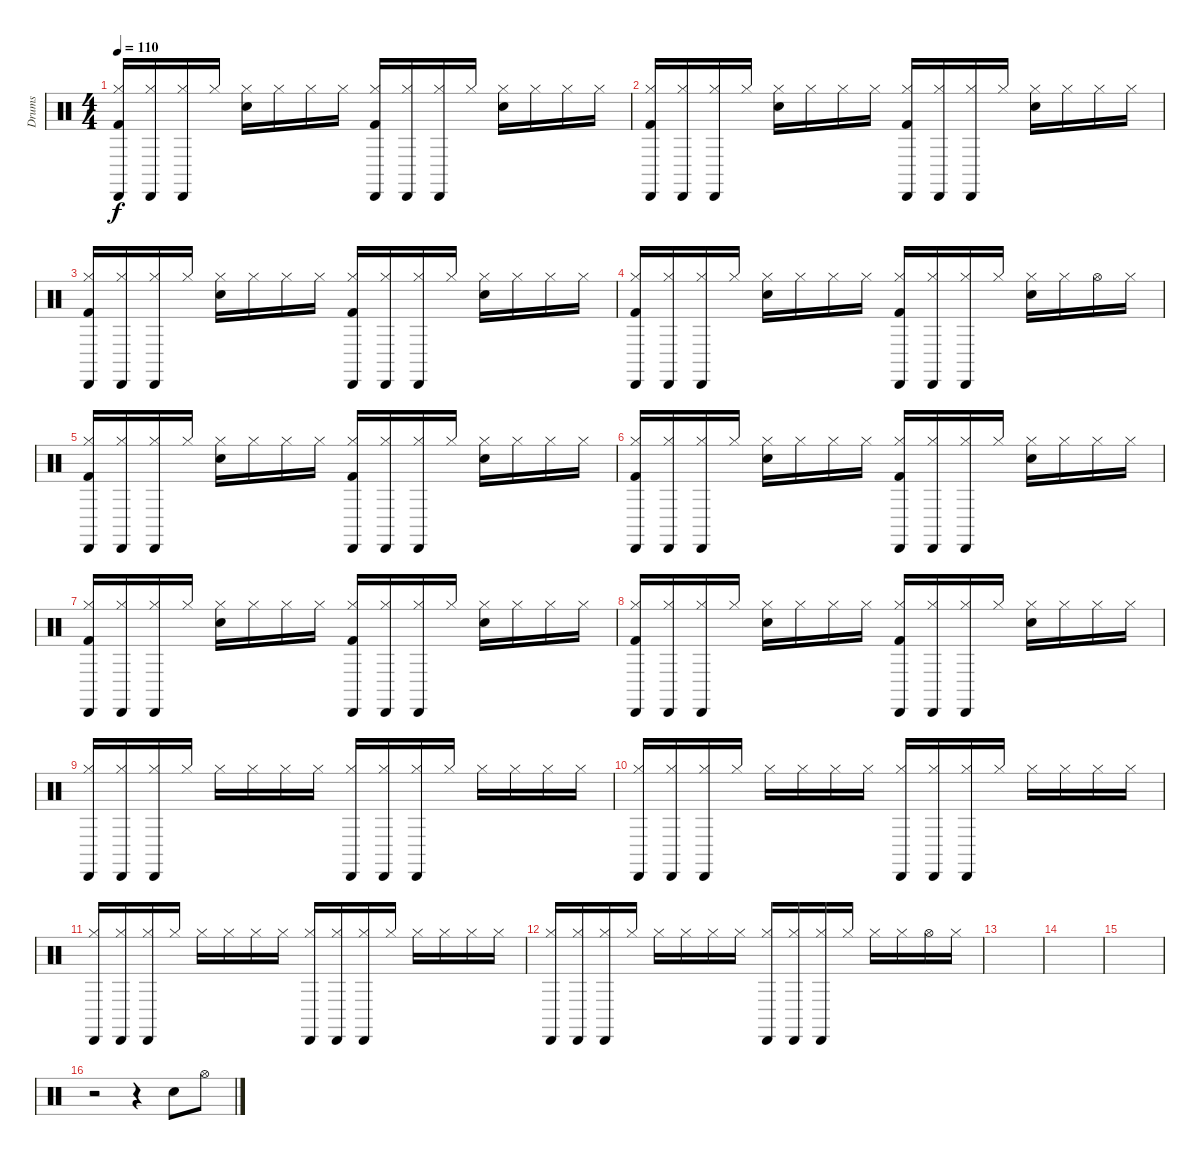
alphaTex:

\track ("Drums" "Drums") {instrument percussion}
\staff {score}
\articulation defaults
\ts (4 4)
\tempo 110
\clef neutral
\ks c
("Cabasa (hit)" "Kick (hit) 2" "Hi-Hat (closed)").16{dy f} ("Cabasa (hit)" "Hi-Hat (closed)").16 ("Cabasa (hit)" "Hi-Hat (closed)").16 "Hi-Hat (closed)".16 ("Electric Snare (hit)" "Hi-Hat (closed)").16 "Hi-Hat (closed)".16 "Hi-Hat (closed)".16 "Hi-Hat (closed)".16 ("Cabasa (hit)" "Kick (hit) 2" "Hi-Hat (closed)").16 ("Cabasa (hit)" "Hi-Hat (closed)").16 ("Cabasa (hit)" "Hi-Hat (closed)").16 "Hi-Hat (closed)".16 ("Electric Snare (hit)" "Hi-Hat (closed)").16 "Hi-Hat (closed)".16 "Hi-Hat (closed)".16 "Hi-Hat (closed)".16 |
("Cabasa (hit)" "Kick (hit) 2" "Hi-Hat (closed)").16 ("Cabasa (hit)" "Hi-Hat (closed)").16 ("Cabasa (hit)" "Hi-Hat (closed)").16 "Hi-Hat (closed)".16 ("Electric Snare (hit)" "Hi-Hat (closed)").16 "Hi-Hat (closed)".16 "Hi-Hat (closed)".16 "Hi-Hat (closed)".16 ("Cabasa (hit)" "Kick (hit) 2" "Hi-Hat (closed)").16 ("Cabasa (hit)" "Hi-Hat (closed)").16 ("Cabasa (hit)" "Hi-Hat (closed)").16 "Hi-Hat (closed)".16 ("Electric Snare (hit)" "Hi-Hat (closed)").16 "Hi-Hat (closed)".16 "Hi-Hat (closed)".16 "Hi-Hat (closed)".16 |
("Cabasa (hit)" "Kick (hit) 2" "Hi-Hat (closed)").16 ("Cabasa (hit)" "Hi-Hat (closed)").16 ("Cabasa (hit)" "Hi-Hat (closed)").16 "Hi-Hat (closed)".16 ("Electric Snare (hit)" "Hi-Hat (closed)").16 "Hi-Hat (closed)".16 "Hi-Hat (closed)".16 "Hi-Hat (closed)".16 ("Cabasa (hit)" "Kick (hit) 2" "Hi-Hat (closed)").16 ("Cabasa (hit)" "Hi-Hat (closed)").16 ("Cabasa (hit)" "Hi-Hat (closed)").16 "Hi-Hat (closed)".16 ("Electric Snare (hit)" "Hi-Hat (closed)").16 "Hi-Hat (closed)".16 "Hi-Hat (closed)".16 "Hi-Hat (closed)".16 |
("Cabasa (hit)" "Kick (hit) 2" "Hi-Hat (closed)").16 ("Cabasa (hit)" "Hi-Hat (closed)").16 ("Cabasa (hit)" "Hi-Hat (closed)").16 "Hi-Hat (closed)".16 ("Electric Snare (hit)" "Hi-Hat (closed)").16 "Hi-Hat (closed)".16 "Hi-Hat (closed)".16 "Hi-Hat (closed)".16 ("Cabasa (hit)" "Kick (hit) 2" "Hi-Hat (closed)").16 ("Cabasa (hit)" "Hi-Hat (closed)").16 ("Cabasa (hit)" "Hi-Hat (closed)").16 "Hi-Hat (closed)".16 ("Electric Snare (hit)" "Hi-Hat (closed)").16 "Hi-Hat (closed)".16 "Hi-Hat (open)".16 "Hi-Hat (closed)".16 |
("Cabasa (hit)" "Kick (hit) 2" "Hi-Hat (closed)").16 ("Cabasa (hit)" "Hi-Hat (closed)").16 ("Cabasa (hit)" "Hi-Hat (closed)").16 "Hi-Hat (closed)".16 ("Electric Snare (hit)" "Hi-Hat (closed)").16 "Hi-Hat (closed)".16 "Hi-Hat (closed)".16 "Hi-Hat (closed)".16 ("Cabasa (hit)" "Kick (hit) 2" "Hi-Hat (closed)").16 ("Cabasa (hit)" "Hi-Hat (closed)").16 ("Cabasa (hit)" "Hi-Hat (closed)").16 "Hi-Hat (closed)".16 ("Electric Snare (hit)" "Hi-Hat (closed)").16 "Hi-Hat (closed)".16 "Hi-Hat (closed)".16 "Hi-Hat (closed)".16 |
("Cabasa (hit)" "Kick (hit) 2" "Hi-Hat (closed)").16 ("Cabasa (hit)" "Hi-Hat (closed)").16 ("Cabasa (hit)" "Hi-Hat (closed)").16 "Hi-Hat (closed)".16 ("Electric Snare (hit)" "Hi-Hat (closed)").16 "Hi-Hat (closed)".16 "Hi-Hat (closed)".16 "Hi-Hat (closed)".16 ("Cabasa (hit)" "Kick (hit) 2" "Hi-Hat (closed)").16 ("Cabasa (hit)" "Hi-Hat (closed)").16 ("Cabasa (hit)" "Hi-Hat (closed)").16 "Hi-Hat (closed)".16 ("Electric Snare (hit)" "Hi-Hat (closed)").16 "Hi-Hat (closed)".16 "Hi-Hat (closed)".16 "Hi-Hat (closed)".16 |
("Cabasa (hit)" "Kick (hit) 2" "Hi-Hat (closed)").16 ("Cabasa (hit)" "Hi-Hat (closed)").16 ("Cabasa (hit)" "Hi-Hat (closed)").16 "Hi-Hat (closed)".16 ("Electric Snare (hit)" "Hi-Hat (closed)").16 "Hi-Hat (closed)".16 "Hi-Hat (closed)".16 "Hi-Hat (closed)".16 ("Cabasa (hit)" "Kick (hit) 2" "Hi-Hat (closed)").16 ("Cabasa (hit)" "Hi-Hat (closed)").16 ("Cabasa (hit)" "Hi-Hat (closed)").16 "Hi-Hat (closed)".16 ("Electric Snare (hit)" "Hi-Hat (closed)").16 "Hi-Hat (closed)".16 "Hi-Hat (closed)".16 "Hi-Hat (closed)".16 |
("Cabasa (hit)" "Kick (hit) 2" "Hi-Hat (closed)").16 ("Cabasa (hit)" "Hi-Hat (closed)").16 ("Cabasa (hit)" "Hi-Hat (closed)").16 "Hi-Hat (closed)".16 ("Electric Snare (hit)" "Hi-Hat (closed)").16 "Hi-Hat (closed)".16 "Hi-Hat (closed)".16 "Hi-Hat (closed)".16 ("Cabasa (hit)" "Kick (hit) 2" "Hi-Hat (closed)").16 ("Cabasa (hit)" "Hi-Hat (closed)").16 ("Cabasa (hit)" "Hi-Hat (closed)").16 "Hi-Hat (closed)".16 ("Electric Snare (hit)" "Hi-Hat (closed)").16 "Hi-Hat (closed)".16 "Hi-Hat (closed)".16 "Hi-Hat (closed)".16 |
("Cabasa (hit)" "Hi-Hat (closed)").16 ("Cabasa (hit)" "Hi-Hat (closed)").16 ("Cabasa (hit)" "Hi-Hat (closed)").16 "Hi-Hat (closed)".16 "Hi-Hat (closed)".16 "Hi-Hat (closed)".16 "Hi-Hat (closed)".16 "Hi-Hat (closed)".16 ("Cabasa (hit)" "Hi-Hat (closed)").16 ("Cabasa (hit)" "Hi-Hat (closed)").16 ("Cabasa (hit)" "Hi-Hat (closed)").16 "Hi-Hat (closed)".16 "Hi-Hat (closed)".16 "Hi-Hat (closed)".16 "Hi-Hat (closed)".16 "Hi-Hat (closed)".16 |
("Cabasa (hit)" "Hi-Hat (closed)").16 ("Cabasa (hit)" "Hi-Hat (closed)").16 ("Cabasa (hit)" "Hi-Hat (closed)").16 "Hi-Hat (closed)".16 "Hi-Hat (closed)".16 "Hi-Hat (closed)".16 "Hi-Hat (closed)".16 "Hi-Hat (closed)".16 ("Cabasa (hit)" "Hi-Hat (closed)").16 ("Cabasa (hit)" "Hi-Hat (closed)").16 ("Cabasa (hit)" "Hi-Hat (closed)").16 "Hi-Hat (closed)".16 "Hi-Hat (closed)".16 "Hi-Hat (closed)".16 "Hi-Hat (closed)".16 "Hi-Hat (closed)".16 |
("Cabasa (hit)" "Hi-Hat (closed)").16 ("Cabasa (hit)" "Hi-Hat (closed)").16 ("Cabasa (hit)" "Hi-Hat (closed)").16 "Hi-Hat (closed)".16 "Hi-Hat (closed)".16 "Hi-Hat (closed)".16 "Hi-Hat (closed)".16 "Hi-Hat (closed)".16 ("Cabasa (hit)" "Hi-Hat (closed)").16 ("Cabasa (hit)" "Hi-Hat (closed)").16 ("Cabasa (hit)" "Hi-Hat (closed)").16 "Hi-Hat (closed)".16 "Hi-Hat (closed)".16 "Hi-Hat (closed)".16 "Hi-Hat (closed)".16 "Hi-Hat (closed)".16 |
("Cabasa (hit)" "Hi-Hat (closed)").16 ("Cabasa (hit)" "Hi-Hat (closed)").16 ("Cabasa (hit)" "Hi-Hat (closed)").16 "Hi-Hat (closed)".16 "Hi-Hat (closed)".16 "Hi-Hat (closed)".16 "Hi-Hat (closed)".16 "Hi-Hat (closed)".16 ("Cabasa (hit)" "Hi-Hat (closed)").16 ("Cabasa (hit)" "Hi-Hat (closed)").16 ("Cabasa (hit)" "Hi-Hat (closed)").16 "Hi-Hat (closed)".16 "Hi-Hat (closed)".16 "Hi-Hat (closed)".16 "Hi-Hat (open)".16 "Hi-Hat (closed)".16 |
|
|
|
r.2 r.4 "Electric Snare (hit)".8 "Hi-Hat (open)".8
